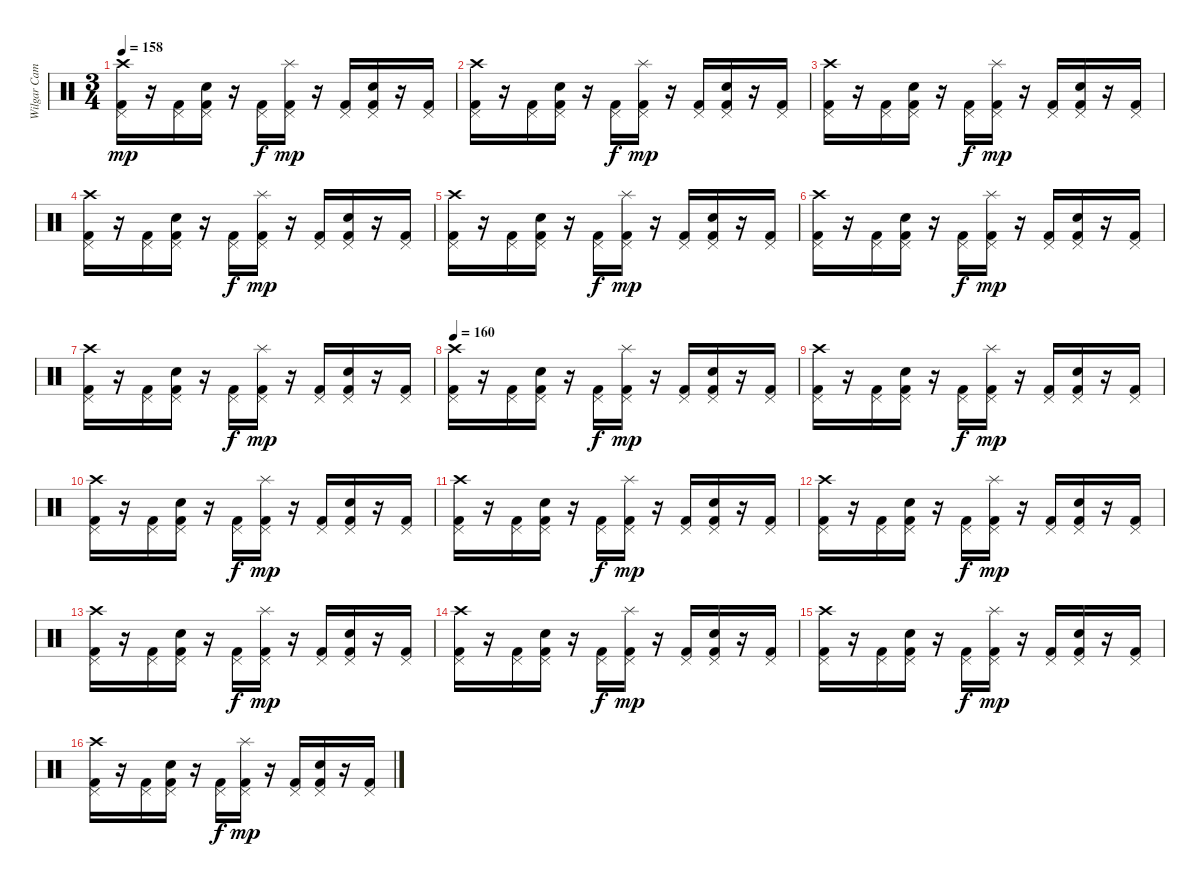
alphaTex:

\track ("Wilgar Campbell" "Wilgar Cam") {instrument percussion}
\staff {score}
\articulation defaults
\ts (3 4)
\tempo 158
\clef neutral
\ks c
("Crash high (hit)" "Pedal Hi-Hat (hit)" "Kick (hit) 2").16{dy mp} r.16 ("Pedal Hi-Hat (hit)" "Kick (hit) 2").16 ("Snare (hit) 2" "Pedal Hi-Hat (hit)" "Kick (hit) 2").16 r.16 ("Pedal Hi-Hat (hit)" "Kick (hit) 2").16{dy f} ("Splash (hit)" "Pedal Hi-Hat (hit)" "Kick (hit) 2").16{dy mp} r.16 ("Pedal Hi-Hat (hit)" "Kick (hit) 2").16 ("Snare (hit) 2" "Pedal Hi-Hat (hit)" "Kick (hit) 2").16 r.16 ("Pedal Hi-Hat (hit)" "Kick (hit) 2").16 |
("Crash high (hit)" "Pedal Hi-Hat (hit)" "Kick (hit) 2").16 r.16 ("Pedal Hi-Hat (hit)" "Kick (hit) 2").16 ("Snare (hit) 2" "Pedal Hi-Hat (hit)" "Kick (hit) 2").16 r.16 ("Pedal Hi-Hat (hit)" "Kick (hit) 2").16{dy f} ("Splash (hit)" "Pedal Hi-Hat (hit)" "Kick (hit) 2").16{dy mp} r.16 ("Pedal Hi-Hat (hit)" "Kick (hit) 2").16 ("Snare (hit) 2" "Pedal Hi-Hat (hit)" "Kick (hit) 2").16 r.16 ("Pedal Hi-Hat (hit)" "Kick (hit) 2").16 |
("Crash high (hit)" "Pedal Hi-Hat (hit)" "Kick (hit) 2").16 r.16 ("Pedal Hi-Hat (hit)" "Kick (hit) 2").16 ("Snare (hit) 2" "Pedal Hi-Hat (hit)" "Kick (hit) 2").16 r.16 ("Pedal Hi-Hat (hit)" "Kick (hit) 2").16{dy f} ("Splash (hit)" "Pedal Hi-Hat (hit)" "Kick (hit) 2").16{dy mp} r.16 ("Pedal Hi-Hat (hit)" "Kick (hit) 2").16 ("Snare (hit) 2" "Pedal Hi-Hat (hit)" "Kick (hit) 2").16 r.16 ("Pedal Hi-Hat (hit)" "Kick (hit) 2").16 |
("Crash high (hit)" "Pedal Hi-Hat (hit)" "Kick (hit) 2").16 r.16 ("Pedal Hi-Hat (hit)" "Kick (hit) 2").16 ("Snare (hit) 2" "Pedal Hi-Hat (hit)" "Kick (hit) 2").16 r.16 ("Pedal Hi-Hat (hit)" "Kick (hit) 2").16{dy f} ("Splash (hit)" "Pedal Hi-Hat (hit)" "Kick (hit) 2").16{dy mp} r.16 ("Pedal Hi-Hat (hit)" "Kick (hit) 2").16 ("Snare (hit) 2" "Pedal Hi-Hat (hit)" "Kick (hit) 2").16 r.16 ("Pedal Hi-Hat (hit)" "Kick (hit) 2").16 |
("Crash high (hit)" "Pedal Hi-Hat (hit)" "Kick (hit) 2").16 r.16 ("Pedal Hi-Hat (hit)" "Kick (hit) 2").16 ("Snare (hit) 2" "Pedal Hi-Hat (hit)" "Kick (hit) 2").16 r.16 ("Pedal Hi-Hat (hit)" "Kick (hit) 2").16{dy f} ("Splash (hit)" "Pedal Hi-Hat (hit)" "Kick (hit) 2").16{dy mp} r.16 ("Pedal Hi-Hat (hit)" "Kick (hit) 2").16 ("Snare (hit) 2" "Pedal Hi-Hat (hit)" "Kick (hit) 2").16 r.16 ("Pedal Hi-Hat (hit)" "Kick (hit) 2").16 |
("Crash high (hit)" "Pedal Hi-Hat (hit)" "Kick (hit) 2").16 r.16 ("Pedal Hi-Hat (hit)" "Kick (hit) 2").16 ("Snare (hit) 2" "Pedal Hi-Hat (hit)" "Kick (hit) 2").16 r.16 ("Pedal Hi-Hat (hit)" "Kick (hit) 2").16{dy f} ("Splash (hit)" "Pedal Hi-Hat (hit)" "Kick (hit) 2").16{dy mp} r.16 ("Pedal Hi-Hat (hit)" "Kick (hit) 2").16 ("Snare (hit) 2" "Pedal Hi-Hat (hit)" "Kick (hit) 2").16 r.16 ("Pedal Hi-Hat (hit)" "Kick (hit) 2").16 |
("Crash high (hit)" "Pedal Hi-Hat (hit)" "Kick (hit) 2").16 r.16 ("Pedal Hi-Hat (hit)" "Kick (hit) 2").16 ("Snare (hit) 2" "Pedal Hi-Hat (hit)" "Kick (hit) 2").16 r.16 ("Pedal Hi-Hat (hit)" "Kick (hit) 2").16{dy f} ("Splash (hit)" "Pedal Hi-Hat (hit)" "Kick (hit) 2").16{dy mp} r.16 ("Pedal Hi-Hat (hit)" "Kick (hit) 2").16 ("Snare (hit) 2" "Pedal Hi-Hat (hit)" "Kick (hit) 2").16 r.16 ("Pedal Hi-Hat (hit)" "Kick (hit) 2").16 |
\tempo 160
("Crash high (hit)" "Pedal Hi-Hat (hit)" "Kick (hit) 2").16 r.16 ("Pedal Hi-Hat (hit)" "Kick (hit) 2").16 ("Snare (hit) 2" "Pedal Hi-Hat (hit)" "Kick (hit) 2").16 r.16 ("Pedal Hi-Hat (hit)" "Kick (hit) 2").16{dy f} ("Splash (hit)" "Pedal Hi-Hat (hit)" "Kick (hit) 2").16{dy mp} r.16 ("Pedal Hi-Hat (hit)" "Kick (hit) 2").16 ("Snare (hit) 2" "Pedal Hi-Hat (hit)" "Kick (hit) 2").16 r.16 ("Pedal Hi-Hat (hit)" "Kick (hit) 2").16 |
("Crash high (hit)" "Pedal Hi-Hat (hit)" "Kick (hit) 2").16 r.16 ("Pedal Hi-Hat (hit)" "Kick (hit) 2").16 ("Snare (hit) 2" "Pedal Hi-Hat (hit)" "Kick (hit) 2").16 r.16 ("Pedal Hi-Hat (hit)" "Kick (hit) 2").16{dy f} ("Splash (hit)" "Pedal Hi-Hat (hit)" "Kick (hit) 2").16{dy mp} r.16 ("Pedal Hi-Hat (hit)" "Kick (hit) 2").16 ("Snare (hit) 2" "Pedal Hi-Hat (hit)" "Kick (hit) 2").16 r.16 ("Pedal Hi-Hat (hit)" "Kick (hit) 2").16 |
("Crash high (hit)" "Pedal Hi-Hat (hit)" "Kick (hit) 2").16 r.16 ("Pedal Hi-Hat (hit)" "Kick (hit) 2").16 ("Snare (hit) 2" "Pedal Hi-Hat (hit)" "Kick (hit) 2").16 r.16 ("Pedal Hi-Hat (hit)" "Kick (hit) 2").16{dy f} ("Splash (hit)" "Pedal Hi-Hat (hit)" "Kick (hit) 2").16{dy mp} r.16 ("Pedal Hi-Hat (hit)" "Kick (hit) 2").16 ("Snare (hit) 2" "Pedal Hi-Hat (hit)" "Kick (hit) 2").16 r.16 ("Pedal Hi-Hat (hit)" "Kick (hit) 2").16 |
("Crash high (hit)" "Pedal Hi-Hat (hit)" "Kick (hit) 2").16 r.16 ("Pedal Hi-Hat (hit)" "Kick (hit) 2").16 ("Snare (hit) 2" "Pedal Hi-Hat (hit)" "Kick (hit) 2").16 r.16 ("Pedal Hi-Hat (hit)" "Kick (hit) 2").16{dy f} ("Splash (hit)" "Pedal Hi-Hat (hit)" "Kick (hit) 2").16{dy mp} r.16 ("Pedal Hi-Hat (hit)" "Kick (hit) 2").16 ("Snare (hit) 2" "Pedal Hi-Hat (hit)" "Kick (hit) 2").16 r.16 ("Pedal Hi-Hat (hit)" "Kick (hit) 2").16 |
("Crash high (hit)" "Pedal Hi-Hat (hit)" "Kick (hit) 2").16 r.16 ("Pedal Hi-Hat (hit)" "Kick (hit) 2").16 ("Snare (hit) 2" "Pedal Hi-Hat (hit)" "Kick (hit) 2").16 r.16 ("Pedal Hi-Hat (hit)" "Kick (hit) 2").16{dy f} ("Splash (hit)" "Pedal Hi-Hat (hit)" "Kick (hit) 2").16{dy mp} r.16 ("Pedal Hi-Hat (hit)" "Kick (hit) 2").16 ("Snare (hit) 2" "Pedal Hi-Hat (hit)" "Kick (hit) 2").16 r.16 ("Pedal Hi-Hat (hit)" "Kick (hit) 2").16 |
("Crash high (hit)" "Pedal Hi-Hat (hit)" "Kick (hit) 2").16 r.16 ("Pedal Hi-Hat (hit)" "Kick (hit) 2").16 ("Snare (hit) 2" "Pedal Hi-Hat (hit)" "Kick (hit) 2").16 r.16 ("Pedal Hi-Hat (hit)" "Kick (hit) 2").16{dy f} ("Splash (hit)" "Pedal Hi-Hat (hit)" "Kick (hit) 2").16{dy mp} r.16 ("Pedal Hi-Hat (hit)" "Kick (hit) 2").16 ("Snare (hit) 2" "Pedal Hi-Hat (hit)" "Kick (hit) 2").16 r.16 ("Pedal Hi-Hat (hit)" "Kick (hit) 2").16 |
("Crash high (hit)" "Pedal Hi-Hat (hit)" "Kick (hit) 2").16 r.16 ("Pedal Hi-Hat (hit)" "Kick (hit) 2").16 ("Snare (hit) 2" "Pedal Hi-Hat (hit)" "Kick (hit) 2").16 r.16 ("Pedal Hi-Hat (hit)" "Kick (hit) 2").16{dy f} ("Splash (hit)" "Pedal Hi-Hat (hit)" "Kick (hit) 2").16{dy mp} r.16 ("Pedal Hi-Hat (hit)" "Kick (hit) 2").16 ("Snare (hit) 2" "Pedal Hi-Hat (hit)" "Kick (hit) 2").16 r.16 ("Pedal Hi-Hat (hit)" "Kick (hit) 2").16 |
("Crash high (hit)" "Pedal Hi-Hat (hit)" "Kick (hit) 2").16 r.16 ("Pedal Hi-Hat (hit)" "Kick (hit) 2").16 ("Snare (hit) 2" "Pedal Hi-Hat (hit)" "Kick (hit) 2").16 r.16 ("Pedal Hi-Hat (hit)" "Kick (hit) 2").16{dy f} ("Splash (hit)" "Pedal Hi-Hat (hit)" "Kick (hit) 2").16{dy mp} r.16 ("Pedal Hi-Hat (hit)" "Kick (hit) 2").16 ("Snare (hit) 2" "Pedal Hi-Hat (hit)" "Kick (hit) 2").16 r.16 ("Pedal Hi-Hat (hit)" "Kick (hit) 2").16 |
("Crash high (hit)" "Pedal Hi-Hat (hit)" "Kick (hit) 2").16 r.16 ("Pedal Hi-Hat (hit)" "Kick (hit) 2").16 ("Snare (hit) 2" "Pedal Hi-Hat (hit)" "Kick (hit) 2").16 r.16 ("Pedal Hi-Hat (hit)" "Kick (hit) 2").16{dy f} ("Splash (hit)" "Pedal Hi-Hat (hit)" "Kick (hit) 2").16{dy mp} r.16 ("Pedal Hi-Hat (hit)" "Kick (hit) 2").16 ("Snare (hit) 2" "Pedal Hi-Hat (hit)" "Kick (hit) 2").16 r.16 ("Pedal Hi-Hat (hit)" "Kick (hit) 2").16
